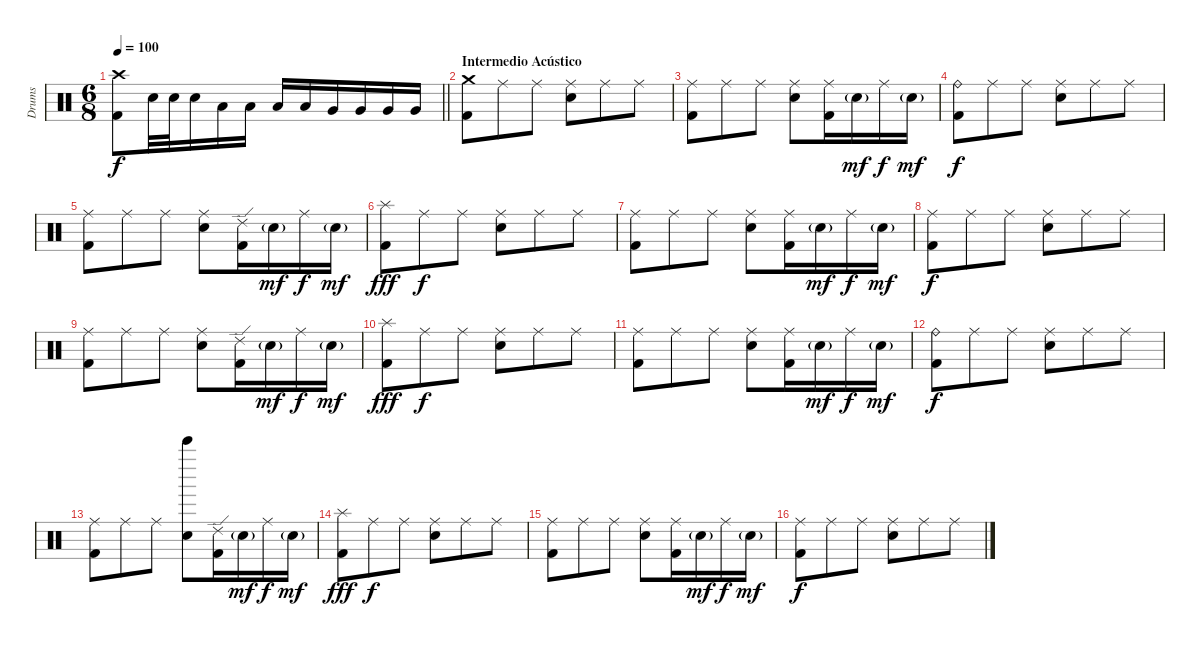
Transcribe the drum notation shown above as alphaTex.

\track ("Drums" "Drums") {instrument percussion}
\staff {score}
\articulation defaults
\ts (6 8)
\tempo 100
\clef neutral
\barLineRight lightlight
\ks c
("Crash high (hit)" "Kick (hit) 2").8{dy f} "Snare (hit) 2".32 "Snare (hit) 2".32 "Snare (hit) 2".16 "Low Tom (hit)".16 "Low Tom (hit)".16 "Low Tom (hit)".16 "Low Tom (hit)".16 "Very Low Tom (hit)".16 "Very Low Tom (hit)".16 "Very Low Tom (hit)".16 "Very Low Tom (hit)".16 |
\section ("" "Intermedio Acústico")
("Crash medium (hit)" "Kick (hit) 2").8 "Ride (middle)".8 "Ride (middle)".8 ("Ride (middle)" "Snare (hit) 2").8 "Ride (middle)".8 "Ride (middle)".8 |
("Ride (middle)" "Kick (hit) 2").8 "Ride (middle)".8 "Ride (middle)".8 ("Ride (middle)" "Snare (hit) 2").8 ("Ride (middle)" "Kick (hit) 2").16 "Snare (hit) 2"{g}.16{dy mf} "Ride (middle)".16{dy f} "Snare (hit) 2"{g}.16{dy mf} |
("Ride (bell)" "Kick (hit) 2").8{dy f} "Ride (middle)".8 "Ride (middle)".8 ("Ride (middle)" "Snare (hit) 2").8 "Ride (middle)".8 "Ride (middle)".8 |
("Ride (middle)" "Kick (hit) 2").8 "Ride (middle)".8 "Ride (middle)".8 ("Ride (middle)" "Snare (hit) 2").8 ("Ride (edge) 2" "Kick (hit) 2").16 "Snare (hit) 2"{g}.16{dy mf} "Ride (middle)".16{dy f} "Snare (hit) 2"{g}.16{dy mf} |
("Splash (hit)" "Kick (hit) 2").8{dy fff} "Ride (middle)".8{dy f} "Ride (middle)".8 ("Ride (middle)" "Snare (hit) 2").8 "Ride (middle)".8 "Ride (middle)".8 |
("Ride (middle)" "Kick (hit) 2").8 "Ride (middle)".8 "Ride (middle)".8 ("Ride (middle)" "Snare (hit) 2").8 ("Ride (middle)" "Kick (hit) 2").16 "Snare (hit) 2"{g}.16{dy mf} "Ride (middle)".16{dy f} "Snare (hit) 2"{g}.16{dy mf} |
("Ride (middle)" "Kick (hit) 2").8{dy f} "Ride (middle)".8 "Ride (middle)".8 ("Ride (middle)" "Snare (hit) 2").8 "Ride (middle)".8 "Ride (middle)".8 |
("Ride (middle)" "Kick (hit) 2").8 "Ride (middle)".8 "Ride (middle)".8 ("Ride (middle)" "Snare (hit) 2").8 ("Ride (edge) 2" "Kick (hit) 2").16 "Snare (hit) 2"{g}.16{dy mf} "Ride (middle)".16{dy f} "Snare (hit) 2"{g}.16{dy mf} |
("Splash (hit)" "Kick (hit) 2").8{dy fff} "Ride (middle)".8{dy f} "Ride (middle)".8 ("Ride (middle)" "Snare (hit) 2").8 "Ride (middle)".8 "Ride (middle)".8 |
("Ride (middle)" "Kick (hit) 2").8 "Ride (middle)".8 "Ride (middle)".8 ("Ride (middle)" "Snare (hit) 2").8 ("Ride (middle)" "Kick (hit) 2").16 "Snare (hit) 2"{g}.16{dy mf} "Ride (middle)".16{dy f} "Snare (hit) 2"{g}.16{dy mf} |
("Ride (bell)" "Kick (hit) 2").8{dy f} "Ride (middle)".8 "Ride (middle)".8 ("Ride (middle)" "Snare (hit) 2").8 "Ride (middle)".8 "Ride (middle)".8 |
("Ride (middle)" "Kick (hit) 2").8 "Ride (middle)".8 "Ride (middle)".8 ("Bell Tree (hit)" "Snare (hit) 2").8 ("Ride (edge) 2" "Kick (hit) 2").16 "Snare (hit) 2"{g}.16{dy mf} "Ride (middle)".16{dy f} "Snare (hit) 2"{g}.16{dy mf} |
("Splash (hit)" "Kick (hit) 2").8{dy fff} "Ride (middle)".8{dy f} "Ride (middle)".8 ("Ride (middle)" "Snare (hit) 2").8 "Ride (middle)".8 "Ride (middle)".8 |
("Ride (middle)" "Kick (hit) 2").8 "Ride (middle)".8 "Ride (middle)".8 ("Ride (middle)" "Snare (hit) 2").8 ("Ride (middle)" "Kick (hit) 2").16 "Snare (hit) 2"{g}.16{dy mf} "Ride (middle)".16{dy f} "Snare (hit) 2"{g}.16{dy mf} |
("Ride (middle)" "Kick (hit) 2").8{dy f} "Ride (middle)".8 "Ride (middle)".8 ("Ride (middle)" "Snare (hit) 2").8 "Ride (middle)".8 "Ride (middle)".8
